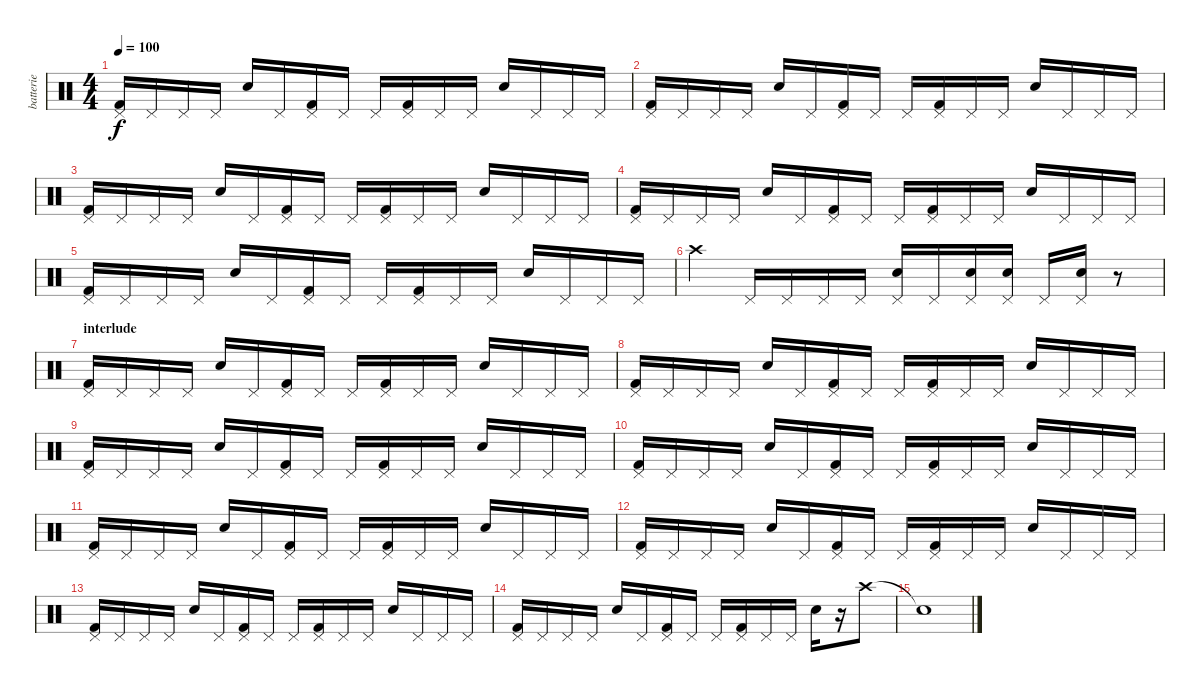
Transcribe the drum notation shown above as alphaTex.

\track ("batterie" "batterie") {instrument percussion}
\staff {score}
\articulation defaults
\ts (4 4)
\tempo 100
\clef neutral
\ks c
("Pedal Hi-Hat (hit)" "Kick (hit) 2").16{dy f} "Pedal Hi-Hat (hit)".16 "Pedal Hi-Hat (hit)".16 "Pedal Hi-Hat (hit)".16 "Snare (hit) 2".16 "Pedal Hi-Hat (hit)".16 ("Pedal Hi-Hat (hit)" "Kick (hit) 2").16 "Pedal Hi-Hat (hit)".16 "Pedal Hi-Hat (hit)".16 ("Pedal Hi-Hat (hit)" "Kick (hit) 2").16 "Pedal Hi-Hat (hit)".16 "Pedal Hi-Hat (hit)".16 "Snare (hit) 2".16 "Pedal Hi-Hat (hit)".16 "Pedal Hi-Hat (hit)".16 "Pedal Hi-Hat (hit)".16 |
("Pedal Hi-Hat (hit)" "Kick (hit) 2").16 "Pedal Hi-Hat (hit)".16 "Pedal Hi-Hat (hit)".16 "Pedal Hi-Hat (hit)".16 "Snare (hit) 2".16 "Pedal Hi-Hat (hit)".16 ("Pedal Hi-Hat (hit)" "Kick (hit) 2").16 "Pedal Hi-Hat (hit)".16 "Pedal Hi-Hat (hit)".16 ("Pedal Hi-Hat (hit)" "Kick (hit) 2").16 "Pedal Hi-Hat (hit)".16 "Pedal Hi-Hat (hit)".16 "Snare (hit) 2".16 "Pedal Hi-Hat (hit)".16 "Pedal Hi-Hat (hit)".16 "Pedal Hi-Hat (hit)".16 |
("Pedal Hi-Hat (hit)" "Kick (hit) 2").16 "Pedal Hi-Hat (hit)".16 "Pedal Hi-Hat (hit)".16 "Pedal Hi-Hat (hit)".16 "Snare (hit) 2".16 "Pedal Hi-Hat (hit)".16 ("Pedal Hi-Hat (hit)" "Kick (hit) 2").16 "Pedal Hi-Hat (hit)".16 "Pedal Hi-Hat (hit)".16 ("Pedal Hi-Hat (hit)" "Kick (hit) 2").16 "Pedal Hi-Hat (hit)".16 "Pedal Hi-Hat (hit)".16 "Snare (hit) 2".16 "Pedal Hi-Hat (hit)".16 "Pedal Hi-Hat (hit)".16 "Pedal Hi-Hat (hit)".16 |
("Pedal Hi-Hat (hit)" "Kick (hit) 2").16 "Pedal Hi-Hat (hit)".16 "Pedal Hi-Hat (hit)".16 "Pedal Hi-Hat (hit)".16 "Snare (hit) 2".16 "Pedal Hi-Hat (hit)".16 ("Pedal Hi-Hat (hit)" "Kick (hit) 2").16 "Pedal Hi-Hat (hit)".16 "Pedal Hi-Hat (hit)".16 ("Pedal Hi-Hat (hit)" "Kick (hit) 2").16 "Pedal Hi-Hat (hit)".16 "Pedal Hi-Hat (hit)".16 "Snare (hit) 2".16 "Pedal Hi-Hat (hit)".16 "Pedal Hi-Hat (hit)".16 "Pedal Hi-Hat (hit)".16 |
("Pedal Hi-Hat (hit)" "Kick (hit) 2").16 "Pedal Hi-Hat (hit)".16 "Pedal Hi-Hat (hit)".16 "Pedal Hi-Hat (hit)".16 "Snare (hit) 2".16 "Pedal Hi-Hat (hit)".16 ("Pedal Hi-Hat (hit)" "Kick (hit) 2").16 "Pedal Hi-Hat (hit)".16 "Pedal Hi-Hat (hit)".16 ("Pedal Hi-Hat (hit)" "Kick (hit) 2").16 "Pedal Hi-Hat (hit)".16 "Pedal Hi-Hat (hit)".16 "Snare (hit) 2".16 "Pedal Hi-Hat (hit)".16 "Pedal Hi-Hat (hit)".16 "Pedal Hi-Hat (hit)".16 |
"Crash high (hit)".4 "Pedal Hi-Hat (hit)".16 "Pedal Hi-Hat (hit)".16 "Pedal Hi-Hat (hit)".16 "Pedal Hi-Hat (hit)".16 ("Pedal Hi-Hat (hit)" "Snare (hit) 2").16 "Pedal Hi-Hat (hit)".16 ("Pedal Hi-Hat (hit)" "Snare (hit) 2").16 ("Pedal Hi-Hat (hit)" "Snare (hit) 2").16 "Pedal Hi-Hat (hit)".16 ("Pedal Hi-Hat (hit)" "Snare (hit) 2").16 r.8 |
\section ("" "interlude")
("Pedal Hi-Hat (hit)" "Kick (hit) 2").16 "Pedal Hi-Hat (hit)".16 "Pedal Hi-Hat (hit)".16 "Pedal Hi-Hat (hit)".16 "Snare (hit) 2".16 "Pedal Hi-Hat (hit)".16 ("Pedal Hi-Hat (hit)" "Kick (hit) 2").16 "Pedal Hi-Hat (hit)".16 "Pedal Hi-Hat (hit)".16 ("Pedal Hi-Hat (hit)" "Kick (hit) 2").16 "Pedal Hi-Hat (hit)".16 "Pedal Hi-Hat (hit)".16 "Snare (hit) 2".16 "Pedal Hi-Hat (hit)".16 "Pedal Hi-Hat (hit)".16 "Pedal Hi-Hat (hit)".16 |
("Pedal Hi-Hat (hit)" "Kick (hit) 2").16 "Pedal Hi-Hat (hit)".16 "Pedal Hi-Hat (hit)".16 "Pedal Hi-Hat (hit)".16 "Snare (hit) 2".16 "Pedal Hi-Hat (hit)".16 ("Pedal Hi-Hat (hit)" "Kick (hit) 2").16 "Pedal Hi-Hat (hit)".16 "Pedal Hi-Hat (hit)".16 ("Pedal Hi-Hat (hit)" "Kick (hit) 2").16 "Pedal Hi-Hat (hit)".16 "Pedal Hi-Hat (hit)".16 "Snare (hit) 2".16 "Pedal Hi-Hat (hit)".16 "Pedal Hi-Hat (hit)".16 "Pedal Hi-Hat (hit)".16 |
("Pedal Hi-Hat (hit)" "Kick (hit) 2").16 "Pedal Hi-Hat (hit)".16 "Pedal Hi-Hat (hit)".16 "Pedal Hi-Hat (hit)".16 "Snare (hit) 2".16 "Pedal Hi-Hat (hit)".16 ("Pedal Hi-Hat (hit)" "Kick (hit) 2").16 "Pedal Hi-Hat (hit)".16 "Pedal Hi-Hat (hit)".16 ("Pedal Hi-Hat (hit)" "Kick (hit) 2").16 "Pedal Hi-Hat (hit)".16 "Pedal Hi-Hat (hit)".16 "Snare (hit) 2".16 "Pedal Hi-Hat (hit)".16 "Pedal Hi-Hat (hit)".16 "Pedal Hi-Hat (hit)".16 |
("Pedal Hi-Hat (hit)" "Kick (hit) 2").16 "Pedal Hi-Hat (hit)".16 "Pedal Hi-Hat (hit)".16 "Pedal Hi-Hat (hit)".16 "Snare (hit) 2".16 "Pedal Hi-Hat (hit)".16 ("Pedal Hi-Hat (hit)" "Kick (hit) 2").16 "Pedal Hi-Hat (hit)".16 "Pedal Hi-Hat (hit)".16 ("Pedal Hi-Hat (hit)" "Kick (hit) 2").16 "Pedal Hi-Hat (hit)".16 "Pedal Hi-Hat (hit)".16 "Snare (hit) 2".16 "Pedal Hi-Hat (hit)".16 "Pedal Hi-Hat (hit)".16 "Pedal Hi-Hat (hit)".16 |
("Pedal Hi-Hat (hit)" "Kick (hit) 2").16 "Pedal Hi-Hat (hit)".16 "Pedal Hi-Hat (hit)".16 "Pedal Hi-Hat (hit)".16 "Snare (hit) 2".16 "Pedal Hi-Hat (hit)".16 ("Pedal Hi-Hat (hit)" "Kick (hit) 2").16 "Pedal Hi-Hat (hit)".16 "Pedal Hi-Hat (hit)".16 ("Pedal Hi-Hat (hit)" "Kick (hit) 2").16 "Pedal Hi-Hat (hit)".16 "Pedal Hi-Hat (hit)".16 "Snare (hit) 2".16 "Pedal Hi-Hat (hit)".16 "Pedal Hi-Hat (hit)".16 "Pedal Hi-Hat (hit)".16 |
("Pedal Hi-Hat (hit)" "Kick (hit) 2").16 "Pedal Hi-Hat (hit)".16 "Pedal Hi-Hat (hit)".16 "Pedal Hi-Hat (hit)".16 "Snare (hit) 2".16 "Pedal Hi-Hat (hit)".16 ("Pedal Hi-Hat (hit)" "Kick (hit) 2").16 "Pedal Hi-Hat (hit)".16 "Pedal Hi-Hat (hit)".16 ("Pedal Hi-Hat (hit)" "Kick (hit) 2").16 "Pedal Hi-Hat (hit)".16 "Pedal Hi-Hat (hit)".16 "Snare (hit) 2".16 "Pedal Hi-Hat (hit)".16 "Pedal Hi-Hat (hit)".16 "Pedal Hi-Hat (hit)".16 |
("Pedal Hi-Hat (hit)" "Kick (hit) 2").16 "Pedal Hi-Hat (hit)".16 "Pedal Hi-Hat (hit)".16 "Pedal Hi-Hat (hit)".16 "Snare (hit) 2".16 "Pedal Hi-Hat (hit)".16 ("Pedal Hi-Hat (hit)" "Kick (hit) 2").16 "Pedal Hi-Hat (hit)".16 "Pedal Hi-Hat (hit)".16 ("Pedal Hi-Hat (hit)" "Kick (hit) 2").16 "Pedal Hi-Hat (hit)".16 "Pedal Hi-Hat (hit)".16 "Snare (hit) 2".16 "Pedal Hi-Hat (hit)".16 "Pedal Hi-Hat (hit)".16 "Pedal Hi-Hat (hit)".16 |
("Pedal Hi-Hat (hit)" "Kick (hit) 2").16 "Pedal Hi-Hat (hit)".16 "Pedal Hi-Hat (hit)".16 "Pedal Hi-Hat (hit)".16 "Snare (hit) 2".16 "Pedal Hi-Hat (hit)".16 ("Pedal Hi-Hat (hit)" "Kick (hit) 2").16 "Pedal Hi-Hat (hit)".16 "Pedal Hi-Hat (hit)".16 ("Pedal Hi-Hat (hit)" "Kick (hit) 2").16 "Pedal Hi-Hat (hit)".16 "Pedal Hi-Hat (hit)".16 "Snare (hit) 2".16 r.16 "Crash high (hit)".8 |
"Snare (hit)"{t}.1
